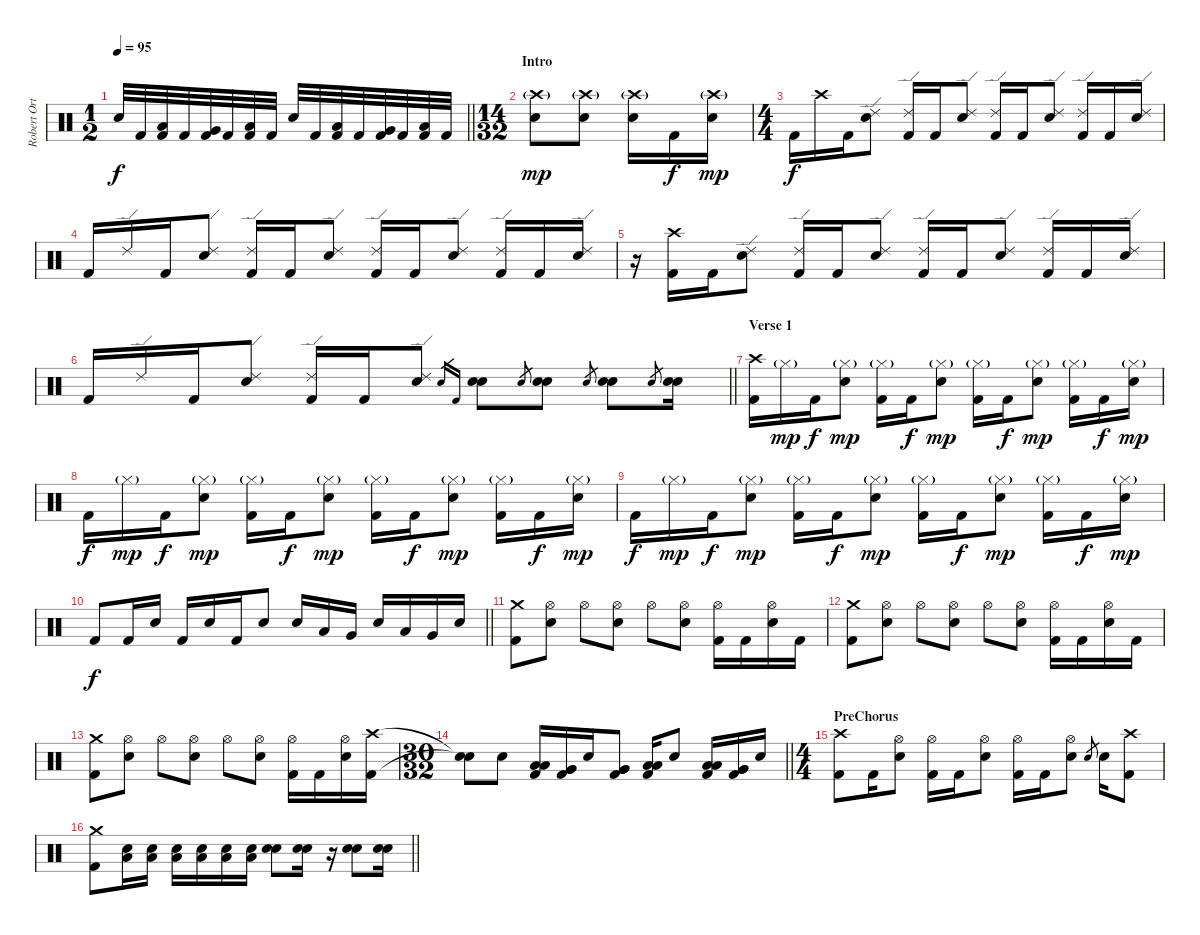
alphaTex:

\track ("Robert Ortiz (Drums)" "Robert Ort") {instrument percussion}
\staff {score}
\articulation defaults
\ts (1 2)
\tempo 95
\clef neutral
\barLineRight lightlight
\ks c "Electric Snare (hit)".32{dy f} "Kick (hit) 2".32
("Low Tom (hit)" "Kick (hit) 2").32 "Kick (hit) 2".32 ("Very Low Tom (hit)" "Kick (hit) 2").32 "Kick (hit) 2".32 ("Low Floor Tom (hit)" "Kick (hit) 2").32 "Kick (hit) 2".32 "Electric Snare (hit)".32 "Kick (hit) 2".32 ("Low Tom (hit)" "Kick (hit) 2").32 "Kick (hit) 2".32 ("Very Low Tom (hit)" "Kick (hit) 2").32 "Kick (hit) 2".32 ("Low Floor Tom (hit)" "Kick (hit) 2").32 "Kick (hit) 2".32 |
\ts (14 32)
\section ("" "Intro")
("Crash high (hit)"{g} "Electric Snare (hit)").8{dy mp} ("Crash high (hit)"{g} "Electric Snare (hit)").8 ("Crash high (hit)"{g} "Electric Snare (hit)").16 "Kick (hit) 2".16{dy f} ("Crash high (hit)"{g} "Electric Snare (hit)").16{dy mp} |
\ts (4 4)
"Kick (hit) 2".16{dy f} "Crash high (hit)".16 "Kick (hit) 2".16 ("Ride (edge) 2" "Electric Snare (hit)").8 ("Ride (edge) 2" "Kick (hit) 2").16 "Kick (hit) 2".16 ("Ride (edge) 2" "Electric Snare (hit)").8 ("Ride (edge) 2" "Kick (hit) 2").16 "Kick (hit) 2".16 ("Ride (edge) 2" "Electric Snare (hit)").8 ("Ride (edge) 2" "Kick (hit) 2").16 "Kick (hit) 2".16 ("Ride (edge) 2" "Electric Snare (hit)").16 |
"Kick (hit) 2".16 "Ride (edge) 2".16 "Kick (hit) 2".16 ("Ride (edge) 2" "Electric Snare (hit)").8 ("Ride (edge) 2" "Kick (hit) 2").16 "Kick (hit) 2".16 ("Ride (edge) 2" "Electric Snare (hit)").8 ("Ride (edge) 2" "Kick (hit) 2").16 "Kick (hit) 2".16 ("Ride (edge) 2" "Electric Snare (hit)").8 ("Ride (edge) 2" "Kick (hit) 2").16 "Kick (hit) 2".16 ("Ride (edge) 2" "Electric Snare (hit)").16 |
r.16 ("Crash high (hit)" "Kick (hit) 2").16 "Kick (hit) 2".16 ("Ride (edge) 2" "Electric Snare (hit)").8 ("Ride (edge) 2" "Kick (hit) 2").16 "Kick (hit) 2".16 ("Ride (edge) 2" "Electric Snare (hit)").8 ("Ride (edge) 2" "Kick (hit) 2").16 "Kick (hit) 2".16 ("Ride (edge) 2" "Electric Snare (hit)").8 ("Ride (edge) 2" "Kick (hit) 2").16 "Kick (hit) 2".16 ("Ride (edge) 2" "Electric Snare (hit)").16 |
\barLineRight lightlight "Kick (hit) 2".16 "Ride (edge) 2".16 "Kick (hit) 2".16
("Ride (edge) 2" "Electric Snare (hit)").8 ("Ride (edge) 2" "Kick (hit) 2").16 "Kick (hit) 2".16 ("Ride (edge) 2" "Electric Snare (hit)").8 "Electric Snare (hit)".16{gr} "Kick (hit) 2".16{gr} ("Electric Snare (hit)" "Electric Snare (hit)").8 "Electric Snare (hit)".8{gr} ("Electric Snare (hit)" "Electric Snare (hit)").8 "Electric Snare (hit)".8{gr} ("Electric Snare (hit)" "Electric Snare (hit)").8 "Electric Snare (hit)".8{gr} ("Electric Snare (hit)" "Electric Snare (hit)").16 |
\section ("" "Verse 1")
("Crash high (hit)" "Kick (hit) 2").16 "Hi-Hat (closed)"{g}.16{dy mp} "Kick (hit) 2".16{dy f} ("Hi-Hat (closed)"{g} "Electric Snare (hit)").8{dy mp} ("Hi-Hat (closed)"{g} "Kick (hit) 2").16 "Kick (hit) 2".16{dy f} ("Hi-Hat (closed)"{g} "Electric Snare (hit)").8{dy mp} ("Hi-Hat (closed)"{g} "Kick (hit) 2").16 "Kick (hit) 2".16{dy f} ("Hi-Hat (closed)"{g} "Electric Snare (hit)").8{dy mp} ("Hi-Hat (closed)"{g} "Kick (hit) 2").16 "Kick (hit) 2".16{dy f} ("Hi-Hat (closed)"{g} "Electric Snare (hit)").16{dy mp} |
"Kick (hit) 2".16{dy f} "Hi-Hat (closed)"{g}.16{dy mp} "Kick (hit) 2".16{dy f} ("Hi-Hat (closed)"{g} "Electric Snare (hit)").8{dy mp} ("Hi-Hat (closed)"{g} "Kick (hit) 2").16 "Kick (hit) 2".16{dy f} ("Hi-Hat (closed)"{g} "Electric Snare (hit)").8{dy mp} ("Hi-Hat (closed)"{g} "Kick (hit) 2").16 "Kick (hit) 2".16{dy f} ("Hi-Hat (closed)"{g} "Electric Snare (hit)").8{dy mp} ("Hi-Hat (closed)"{g} "Kick (hit) 2").16 "Kick (hit) 2".16{dy f} ("Hi-Hat (closed)"{g} "Electric Snare (hit)").16{dy mp} |
"Kick (hit) 2".16{dy f} "Hi-Hat (closed)"{g}.16{dy mp} "Kick (hit) 2".16{dy f} ("Hi-Hat (closed)"{g} "Electric Snare (hit)").8{dy mp} ("Hi-Hat (closed)"{g} "Kick (hit) 2").16 "Kick (hit) 2".16{dy f} ("Hi-Hat (closed)"{g} "Electric Snare (hit)").8{dy mp} ("Hi-Hat (closed)"{g} "Kick (hit) 2").16 "Kick (hit) 2".16{dy f} ("Hi-Hat (closed)"{g} "Electric Snare (hit)").8{dy mp} ("Hi-Hat (closed)"{g} "Kick (hit) 2").16 "Kick (hit) 2".16{dy f} ("Hi-Hat (closed)"{g} "Electric Snare (hit)").16{dy mp} |
\barLineRight lightlight "Kick (hit) 2".8{dy f} "Kick (hit) 2".16 "Electric Snare (hit)".16 "Kick (hit) 2".16 "Electric Snare (hit)".16 "Kick (hit) 2".16 "Electric Snare (hit)".8 "Electric Snare (hit)".16 "Low Tom (hit)".16 "Very Low Tom (hit)".16 "Electric Snare (hit)".16 "Low Tom (hit)".16 "Very Low Tom (hit)".16 "Electric Snare (hit)".16
|
("Crash medium (hit)" "Kick (hit) 2").8 ("Hi-Hat (open)" "Electric Snare (hit)").8 "Hi-Hat (open)".8 ("Hi-Hat (open)" "Electric Snare (hit)").8 "Hi-Hat (open)".8 ("Hi-Hat (open)" "Electric Snare (hit)").8 ("Hi-Hat (open)" "Kick (hit) 2").16 "Kick (hit) 2".16 ("Hi-Hat (open)" "Electric Snare (hit)").16 "Kick (hit) 2".16 |
("Crash medium (hit)" "Kick (hit) 2").8 ("Hi-Hat (open)" "Electric Snare (hit)").8 "Hi-Hat (open)".8 ("Hi-Hat (open)" "Electric Snare (hit)").8 "Hi-Hat (open)".8 ("Hi-Hat (open)" "Electric Snare (hit)").8 ("Hi-Hat (open)" "Kick (hit) 2").16 "Kick (hit) 2".16 ("Hi-Hat (open)" "Electric Snare (hit)").16 "Kick (hit) 2".16 |
("Crash medium (hit)" "Kick (hit) 2").8 ("Hi-Hat (open)" "Electric Snare (hit)").8 "Hi-Hat (open)".8 ("Hi-Hat (open)" "Electric Snare (hit)").8 "Hi-Hat (open)".8 ("Hi-Hat (open)" "Electric Snare (hit)").8 ("Hi-Hat (open)" "Kick (hit) 2").16 "Kick (hit) 2".16 ("Hi-Hat (open)" "Electric Snare (hit)").16 ("Crash high (hit)" "Kick (hit) 2").16 |
\ts (30 32)
\barLineRight lightlight
("Snare (hit)"{t} "Snare (hit)"{t}).8 "Electric Snare (hit)".8 ("Low Tom (hit)" "Low Tom (hit)" "Kick (hit) 2").16 ("Very Low Tom (hit)" "Very Low Tom (hit)" "Kick (hit) 2").16 "Electric Snare (hit)".16 ("Very Low Tom (hit)" "Very Low Tom (hit)" "Kick (hit) 2").8 ("Low Floor Tom (hit)" "Low Floor Tom (hit)" "Kick (hit) 2").16 "Electric Snare (hit)".8 ("Low Tom (hit)" "Low Tom (hit)" "Kick (hit) 2").16 ("Very Low Tom (hit)" "Very Low Tom (hit)" "Kick (hit) 2").16 "Electric Snare (hit)".16 |
\ts (4 4)
\section ("" "PreChorus")
("Crash high (hit)" "Kick (hit) 2").8 "Kick (hit) 2".16 ("Hi-Hat (open)" "Electric Snare (hit)").8 ("Hi-Hat (open)" "Kick (hit) 2").16 "Kick (hit) 2".16 ("Hi-Hat (open)" "Electric Snare (hit)").8 ("Hi-Hat (open)" "Kick (hit) 2").16 "Kick (hit) 2".16 ("Hi-Hat (open)" "Electric Snare (hit)").8 "Electric Snare (hit)".8{gr} "Electric Snare (hit)".16 ("Crash high (hit)" "Kick (hit) 2").8 |
\barLineRight lightlight
("Crash medium (hit)" "Kick (hit) 2").8 ("Low Floor Tom (hit)" "Electric Snare (hit)").16{volume 16} ("Low Floor Tom (hit)" "Electric Snare (hit)").16 ("Low Floor Tom (hit)" "Electric Snare (hit)").16 ("Low Floor Tom (hit)" "Electric Snare (hit)").16 ("Low Floor Tom (hit)" "Electric Snare (hit)").16 ("Low Floor Tom (hit)" "Electric Snare (hit)").16 ("Electric Snare (hit)" "Electric Snare (hit)").8 ("Electric Snare (hit)" "Electric Snare (hit)").16 r.16 ("Electric Snare (hit)" "Electric Snare (hit)").8 ("Electric Snare (hit)" "Electric Snare (hit)").16
